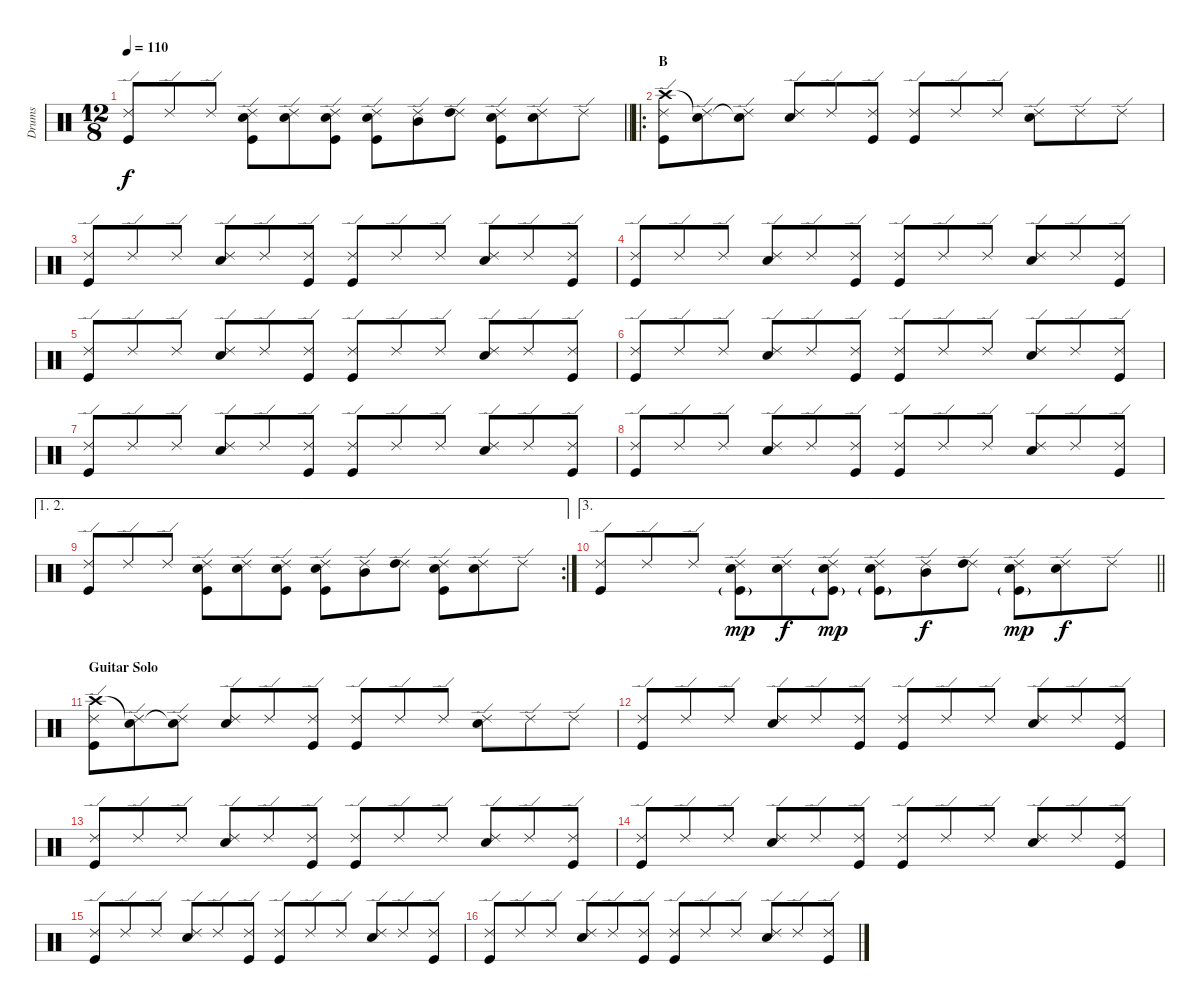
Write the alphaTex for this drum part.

\track ("Drums" "Drums") {instrument percussion}
\staff {score}
\articulation defaults
\ts (12 8)
\tempo 110
\clef neutral
\barLineRight lightlight
\ks c
("Ride (edge) 2" "Kick (hit)").8{dy f} "Ride (edge) 2".8 "Ride (edge) 2".8 ("Ride (edge) 2" "Snare (hit) 2" "Kick (hit)").8 ("Ride (edge) 2" "Snare (hit) 2").8 ("Ride (edge) 2" "Snare (hit) 2" "Kick (hit)").8 ("Ride (edge) 2" "Snare (hit) 2" "Kick (hit)").8 ("Ride (edge) 2" "Mid Tom (hit)").8 ("Ride (edge) 2" "High Tom (hit)").8 ("Ride (edge) 2" "Snare (hit) 2" "Kick (hit)").8 ("Ride (edge) 2" "Snare (hit) 2").8 "Ride (edge) 2".8 |
\ro
\section ("" "B")
("Ride (edge) 2" "Crash high (hit)" "Kick (hit)").8 ("Ride (edge) 2" "Snare (hit)"{t}).8 ("Ride (edge) 2" "Snare (hit)"{t}).8 ("Ride (edge) 2" "Snare (hit) 2").8 "Ride (edge) 2".8 ("Ride (edge) 2" "Kick (hit)").8 ("Ride (edge) 2" "Kick (hit)").8 "Ride (edge) 2".8 "Ride (edge) 2".8 ("Ride (edge) 2" "Snare (hit) 2").8 "Ride (edge) 2".8 "Ride (edge) 2".8 |
("Ride (edge) 2" "Kick (hit)").8 "Ride (edge) 2".8 "Ride (edge) 2".8 ("Ride (edge) 2" "Snare (hit) 2").8 "Ride (edge) 2".8 ("Ride (edge) 2" "Kick (hit)").8 ("Ride (edge) 2" "Kick (hit)").8 "Ride (edge) 2".8 "Ride (edge) 2".8 ("Ride (edge) 2" "Snare (hit) 2").8 "Ride (edge) 2".8 ("Ride (edge) 2" "Kick (hit)").8 |
("Ride (edge) 2" "Kick (hit)").8 "Ride (edge) 2".8 "Ride (edge) 2".8 ("Ride (edge) 2" "Snare (hit) 2").8 "Ride (edge) 2".8 ("Ride (edge) 2" "Kick (hit)").8 ("Ride (edge) 2" "Kick (hit)").8 "Ride (edge) 2".8 "Ride (edge) 2".8 ("Ride (edge) 2" "Snare (hit) 2").8 "Ride (edge) 2".8 ("Ride (edge) 2" "Kick (hit)").8 |
("Ride (edge) 2" "Kick (hit)").8 "Ride (edge) 2".8 "Ride (edge) 2".8 ("Ride (edge) 2" "Snare (hit) 2").8 "Ride (edge) 2".8 ("Ride (edge) 2" "Kick (hit)").8 ("Ride (edge) 2" "Kick (hit)").8 "Ride (edge) 2".8 "Ride (edge) 2".8 ("Ride (edge) 2" "Snare (hit) 2").8 "Ride (edge) 2".8 ("Ride (edge) 2" "Kick (hit)").8 |
("Ride (edge) 2" "Kick (hit)").8 "Ride (edge) 2".8 "Ride (edge) 2".8 ("Ride (edge) 2" "Snare (hit) 2").8 "Ride (edge) 2".8 ("Ride (edge) 2" "Kick (hit)").8 ("Ride (edge) 2" "Kick (hit)").8 "Ride (edge) 2".8 "Ride (edge) 2".8 ("Ride (edge) 2" "Snare (hit) 2").8 "Ride (edge) 2".8 ("Ride (edge) 2" "Kick (hit)").8 |
("Ride (edge) 2" "Kick (hit)").8 "Ride (edge) 2".8 "Ride (edge) 2".8 ("Ride (edge) 2" "Snare (hit) 2").8 "Ride (edge) 2".8 ("Ride (edge) 2" "Kick (hit)").8 ("Ride (edge) 2" "Kick (hit)").8 "Ride (edge) 2".8 "Ride (edge) 2".8 ("Ride (edge) 2" "Snare (hit) 2").8 "Ride (edge) 2".8 ("Ride (edge) 2" "Kick (hit)").8 |
("Ride (edge) 2" "Kick (hit)").8 "Ride (edge) 2".8 "Ride (edge) 2".8 ("Ride (edge) 2" "Snare (hit) 2").8 "Ride (edge) 2".8 ("Ride (edge) 2" "Kick (hit)").8 ("Ride (edge) 2" "Kick (hit)").8 "Ride (edge) 2".8 "Ride (edge) 2".8 ("Ride (edge) 2" "Snare (hit) 2").8 "Ride (edge) 2".8 ("Ride (edge) 2" "Kick (hit)").8 |
\ae (1 2)
\rc 2
("Ride (edge) 2" "Kick (hit)").8 "Ride (edge) 2".8 "Ride (edge) 2".8 ("Ride (edge) 2" "Snare (hit) 2" "Kick (hit)").8 ("Ride (edge) 2" "Snare (hit) 2").8 ("Ride (edge) 2" "Snare (hit) 2" "Kick (hit)").8 ("Ride (edge) 2" "Snare (hit) 2" "Kick (hit)").8 ("Ride (edge) 2" "Mid Tom (hit)").8 ("Ride (edge) 2" "High Tom (hit)").8 ("Ride (edge) 2" "Snare (hit) 2" "Kick (hit)").8 ("Ride (edge) 2" "Snare (hit) 2").8 "Ride (edge) 2".8 |
\ae 3
\barLineRight lightlight
("Ride (edge) 2" "Kick (hit)").8 "Ride (edge) 2".8 "Ride (edge) 2".8 ("Ride (edge) 2" "Snare (hit) 2" "Kick (hit)"{g}).8{dy mp} ("Ride (edge) 2" "Snare (hit) 2").8{dy f} ("Ride (edge) 2" "Snare (hit) 2" "Kick (hit)"{g}).8{dy mp} ("Ride (edge) 2" "Snare (hit) 2" "Kick (hit)"{g}).8 ("Ride (edge) 2" "Mid Tom (hit)").8{dy f} ("Ride (edge) 2" "High Tom (hit)").8 ("Ride (edge) 2" "Snare (hit) 2" "Kick (hit)"{g}).8{dy mp} ("Ride (edge) 2" "Snare (hit) 2").8{dy f} "Ride (edge) 2".8 |
\section ("" "Guitar Solo")
("Ride (edge) 2" "Crash high (hit)" "Kick (hit)").8 ("Ride (edge) 2" "Snare (hit)"{t}).8 ("Ride (edge) 2" "Snare (hit)"{t}).8 ("Ride (edge) 2" "Snare (hit) 2").8 "Ride (edge) 2".8 ("Ride (edge) 2" "Kick (hit)").8 ("Ride (edge) 2" "Kick (hit)").8 "Ride (edge) 2".8 "Ride (edge) 2".8 ("Ride (edge) 2" "Snare (hit) 2").8 "Ride (edge) 2".8 "Ride (edge) 2".8 |
("Ride (edge) 2" "Kick (hit)").8 "Ride (edge) 2".8 "Ride (edge) 2".8 ("Ride (edge) 2" "Snare (hit) 2").8 "Ride (edge) 2".8 ("Ride (edge) 2" "Kick (hit)").8 ("Ride (edge) 2" "Kick (hit)").8 "Ride (edge) 2".8 "Ride (edge) 2".8 ("Ride (edge) 2" "Snare (hit) 2").8 "Ride (edge) 2".8 ("Ride (edge) 2" "Kick (hit)").8 |
("Ride (edge) 2" "Kick (hit)").8 "Ride (edge) 2".8 "Ride (edge) 2".8 ("Ride (edge) 2" "Snare (hit) 2").8 "Ride (edge) 2".8 ("Ride (edge) 2" "Kick (hit)").8 ("Ride (edge) 2" "Kick (hit)").8 "Ride (edge) 2".8 "Ride (edge) 2".8 ("Ride (edge) 2" "Snare (hit) 2").8 "Ride (edge) 2".8 ("Ride (edge) 2" "Kick (hit)").8 |
("Ride (edge) 2" "Kick (hit)").8 "Ride (edge) 2".8 "Ride (edge) 2".8 ("Ride (edge) 2" "Snare (hit) 2").8 "Ride (edge) 2".8 ("Ride (edge) 2" "Kick (hit)").8 ("Ride (edge) 2" "Kick (hit)").8 "Ride (edge) 2".8 "Ride (edge) 2".8 ("Ride (edge) 2" "Snare (hit) 2").8 "Ride (edge) 2".8 ("Ride (edge) 2" "Kick (hit)").8 |
("Ride (edge) 2" "Kick (hit)").8 "Ride (edge) 2".8 "Ride (edge) 2".8 ("Ride (edge) 2" "Snare (hit) 2").8 "Ride (edge) 2".8 ("Ride (edge) 2" "Kick (hit)").8 ("Ride (edge) 2" "Kick (hit)").8 "Ride (edge) 2".8 "Ride (edge) 2".8 ("Ride (edge) 2" "Snare (hit) 2").8 "Ride (edge) 2".8 ("Ride (edge) 2" "Kick (hit)").8 |
("Ride (edge) 2" "Kick (hit)").8 "Ride (edge) 2".8 "Ride (edge) 2".8 ("Ride (edge) 2" "Snare (hit) 2").8 "Ride (edge) 2".8 ("Ride (edge) 2" "Kick (hit)").8 ("Ride (edge) 2" "Kick (hit)").8 "Ride (edge) 2".8 "Ride (edge) 2".8 ("Ride (edge) 2" "Snare (hit) 2").8 "Ride (edge) 2".8 ("Ride (edge) 2" "Kick (hit)").8
